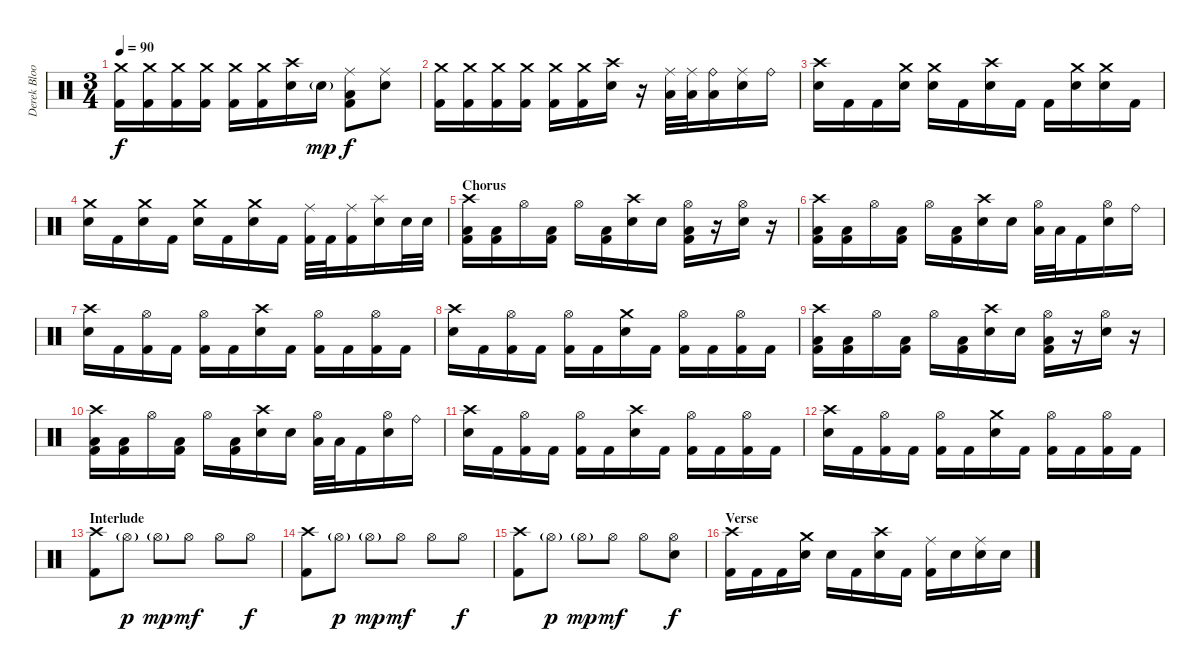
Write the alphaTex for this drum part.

\track ("Derek Bloom (Drums)" "Derek Bloo") {instrument percussion}
\staff {score}
\articulation defaults
\ts (3 4)
\tempo 90
\clef neutral
\ks c
("Crash medium (hit)" "Kick (hit) 2").16{dy f} ("Crash medium (hit)" "Kick (hit) 2").16 ("Crash medium (hit)" "Kick (hit) 2").16 ("Crash medium (hit)" "Kick (hit) 2").16 ("Crash medium (hit)" "Kick (hit) 2").16 ("Crash medium (hit)" "Kick (hit) 2").16 ("Crash high (hit)" "Electric Snare (hit)").16 "Electric Snare (hit)"{g}.16{dy mp} ("Ride (middle)" "Low Floor Tom (hit)" "Kick (hit) 2").8{dy f} ("Ride (middle)" "Electric Snare (hit)").8 |
("Crash medium (hit)" "Kick (hit) 2").16 ("Crash medium (hit)" "Kick (hit) 2").16 ("Crash medium (hit)" "Kick (hit) 2").16 ("Crash medium (hit)" "Kick (hit) 2").16 ("Crash medium (hit)" "Kick (hit) 2").16 ("Crash medium (hit)" "Kick (hit) 2").16 ("Crash high (hit)" "Electric Snare (hit)").16 r.16 ("Ride (middle)" "Low Tom (hit)").32 ("Ride (middle)" "Low Tom (hit)").32 ("Ride (bell)" "Low Tom (hit)").16 ("Ride (middle)" "Electric Snare (hit)").16 "Ride (bell)".16 |
("Crash high (hit)" "Electric Snare (hit)").16 "Kick (hit) 2".16 "Kick (hit) 2".16 ("Crash medium (hit)" "Electric Snare (hit)").16 ("Crash medium (hit)" "Electric Snare (hit)").16 "Kick (hit) 2".16 ("Crash high (hit)" "Electric Snare (hit)").16 "Kick (hit) 2".16 "Kick (hit) 2".16 ("Crash medium (hit)" "Electric Snare (hit)").16 ("Crash medium (hit)" "Electric Snare (hit)").16 "Kick (hit) 2".16 |
("Crash medium (hit)" "Electric Snare (hit)").16 "Kick (hit) 2".16 ("Crash medium (hit)" "Electric Snare (hit)").16 "Kick (hit) 2".16 ("Crash medium (hit)" "Electric Snare (hit)").16 "Kick (hit) 2".16 ("Crash medium (hit)" "Electric Snare (hit)").16 "Kick (hit) 2".16 ("Ride (middle)" "Kick (hit) 2").32 "Kick (hit) 2".32 ("Ride (middle)" "Kick (hit) 2").16 ("Splash (hit)" "Electric Snare (hit)").16 "Electric Snare (hit)".32 "Electric Snare (hit)".32 |
\section ("" "Chorus")
("Crash high (hit)" "Low Floor Tom (hit)" "Kick (hit) 2").16 ("Low Floor Tom (hit)" "Kick (hit) 2").16 "Hi-Hat (open)".16 ("Low Floor Tom (hit)" "Kick (hit) 2").16 "Hi-Hat (open)".16 ("Low Floor Tom (hit)" "Kick (hit) 2").16 ("Crash high (hit)" "Electric Snare (hit)").16 "Electric Snare (hit)".16 ("Hi-Hat (open)" "Low Floor Tom (hit)" "Kick (hit) 2").16 r.16 ("Hi-Hat (open)" "Electric Snare (hit)").16 r.16 |
("Crash high (hit)" "Low Floor Tom (hit)" "Kick (hit) 2").16 ("Low Floor Tom (hit)" "Kick (hit) 2").16 "Hi-Hat (open)".16 ("Low Floor Tom (hit)" "Kick (hit) 2").16 "Hi-Hat (open)".16 ("Low Floor Tom (hit)" "Kick (hit) 2").16 ("Crash high (hit)" "Electric Snare (hit)").16 "Electric Snare (hit)".16 ("Hi-Hat (open)" "Low Tom (hit)").32 "Low Tom (hit)".32 "Kick (hit) 2".16 ("Hi-Hat (open)" "Electric Snare (hit)").16 "Ride (bell)".16 |
("Crash high (hit)" "Electric Snare (hit)").16 "Kick (hit) 2".16 ("Hi-Hat (open)" "Kick (hit) 2").16 "Kick (hit) 2".16 ("Hi-Hat (open)" "Kick (hit) 2").16 "Kick (hit) 2".16 ("Crash high (hit)" "Electric Snare (hit)").16 "Kick (hit) 2".16 ("Hi-Hat (open)" "Kick (hit) 2").16 "Kick (hit) 2".16 ("Hi-Hat (open)" "Kick (hit) 2").16 "Kick (hit) 2".16 |
("Crash high (hit)" "Electric Snare (hit)").16 "Kick (hit) 2".16 ("Hi-Hat (open)" "Kick (hit) 2").16 "Kick (hit) 2".16 ("Hi-Hat (open)" "Kick (hit) 2").16 "Kick (hit) 2".16 ("Crash medium (hit)" "Electric Snare (hit)").16 "Kick (hit) 2".16 ("Hi-Hat (open)" "Kick (hit) 2").16 "Kick (hit) 2".16 ("Hi-Hat (open)" "Kick (hit) 2").16 "Kick (hit) 2".16 |
("Crash high (hit)" "Low Floor Tom (hit)" "Kick (hit) 2").16 ("Low Floor Tom (hit)" "Kick (hit) 2").16 "Hi-Hat (open)".16 ("Low Floor Tom (hit)" "Kick (hit) 2").16 "Hi-Hat (open)".16 ("Low Floor Tom (hit)" "Kick (hit) 2").16 ("Crash high (hit)" "Electric Snare (hit)").16 "Electric Snare (hit)".16 ("Hi-Hat (open)" "Low Floor Tom (hit)" "Kick (hit) 2").16 r.16 ("Hi-Hat (open)" "Electric Snare (hit)").16 r.16 |
("Crash high (hit)" "Low Floor Tom (hit)" "Kick (hit) 2").16 ("Low Floor Tom (hit)" "Kick (hit) 2").16 "Hi-Hat (open)".16 ("Low Floor Tom (hit)" "Kick (hit) 2").16 "Hi-Hat (open)".16 ("Low Floor Tom (hit)" "Kick (hit) 2").16 ("Crash high (hit)" "Electric Snare (hit)").16 "Electric Snare (hit)".16 ("Hi-Hat (open)" "Low Tom (hit)").32 "Low Tom (hit)".32 "Kick (hit) 2".16 ("Hi-Hat (open)" "Electric Snare (hit)").16 "Ride (bell)".16 |
("Crash high (hit)" "Electric Snare (hit)").16 "Kick (hit) 2".16 ("Hi-Hat (open)" "Kick (hit) 2").16 "Kick (hit) 2".16 ("Hi-Hat (open)" "Kick (hit) 2").16 "Kick (hit) 2".16 ("Crash high (hit)" "Electric Snare (hit)").16 "Kick (hit) 2".16 ("Hi-Hat (open)" "Kick (hit) 2").16 "Kick (hit) 2".16 ("Hi-Hat (open)" "Kick (hit) 2").16 "Kick (hit) 2".16 |
("Crash high (hit)" "Electric Snare (hit)").16 "Kick (hit) 2".16 ("Hi-Hat (open)" "Kick (hit) 2").16 "Kick (hit) 2".16 ("Hi-Hat (open)" "Kick (hit) 2").16 "Kick (hit) 2".16 ("Crash medium (hit)" "Electric Snare (hit)").16 "Kick (hit) 2".16 ("Hi-Hat (open)" "Kick (hit) 2").16 "Kick (hit) 2".16 ("Hi-Hat (open)" "Kick (hit) 2").16 "Kick (hit) 2".16 |
\section ("" "Interlude")
("Crash high (hit)" "Kick (hit) 2").8 "Hi-Hat (open)"{g}.8{dy p} "Hi-Hat (open)"{g}.8{dy mp} "Hi-Hat (open)".8{dy mf} "Hi-Hat (open)".8 "Hi-Hat (open)".8{dy f} |
("Crash high (hit)" "Kick (hit) 2").8 "Hi-Hat (open)"{g}.8{dy p} "Hi-Hat (open)"{g}.8{dy mp} "Hi-Hat (open)".8{dy mf} "Hi-Hat (open)".8 "Hi-Hat (open)".8{dy f} |
("Crash high (hit)" "Kick (hit) 2").8 "Hi-Hat (open)"{g}.8{dy p} "Hi-Hat (open)"{g}.8{dy mp} "Hi-Hat (open)".8{dy mf} "Hi-Hat (open)".8 ("Hi-Hat (open)" "Electric Snare (hit)").8{dy f} |
\section ("" "Verse")
("Crash high (hit)" "Kick (hit) 2").16 "Kick (hit) 2".16 "Kick (hit) 2".16 ("Crash medium (hit)" "Electric Snare (hit)").16 "Electric Snare (hit)".16 "Kick (hit) 2".16 ("Crash high (hit)" "Electric Snare (hit)").16 "Kick (hit) 2".16 ("Ride (middle)" "Kick (hit) 2").16 "Electric Snare (hit)".16 ("Ride (middle)" "Electric Snare (hit)").16 "Electric Snare (hit)".16
